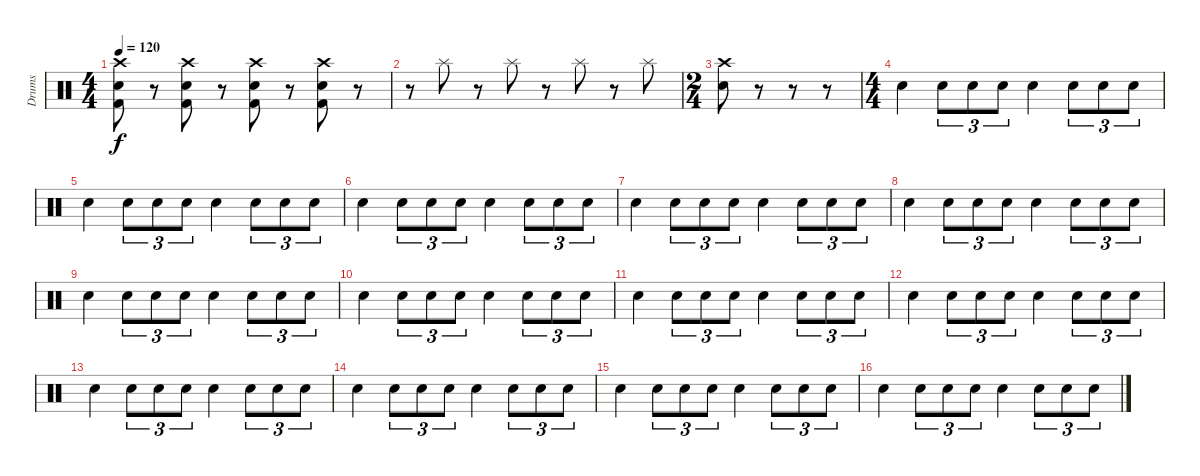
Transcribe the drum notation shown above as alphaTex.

\track ("Drums" "Drums") {instrument percussion}
\staff {score}
\articulation defaults
\ts (4 4)
\tempo 120
\clef neutral
\ks c
("Electric Snare (hit)" "Kick (hit) 2" "Crash high (hit)").8{dy f} r.8 ("Electric Snare (hit)" "Kick (hit) 2" "Crash high (hit)").8 r.8 ("Electric Snare (hit)" "Kick (hit) 2" "Crash high (hit)").8 r.8 ("Electric Snare (hit)" "Kick (hit) 2" "Crash high (hit)").8 r.8 |
r.8 "Splash (hit)".8 r.8 "Splash (hit)".8 r.8 "Splash (hit)".8 r.8 "Splash (hit)".8 |
\ts (2 4)
("Crash high (hit)" "Electric Snare (hit)").8 r.8 r.8 r.8 |
\ts (4 4)
"Electric Snare (hit)".4 "Electric Snare (hit)".8{tu (3 2)} "Electric Snare (hit)".8{tu (3 2)} "Electric Snare (hit)".8{tu (3 2)} "Electric Snare (hit)".4 "Electric Snare (hit)".8{tu (3 2)} "Electric Snare (hit)".8{tu (3 2)} "Electric Snare (hit)".8{tu (3 2)} |
"Electric Snare (hit)".4 "Electric Snare (hit)".8{tu (3 2)} "Electric Snare (hit)".8{tu (3 2)} "Electric Snare (hit)".8{tu (3 2)} "Electric Snare (hit)".4 "Electric Snare (hit)".8{tu (3 2)} "Electric Snare (hit)".8{tu (3 2)} "Electric Snare (hit)".8{tu (3 2)} |
"Electric Snare (hit)".4 "Electric Snare (hit)".8{tu (3 2)} "Electric Snare (hit)".8{tu (3 2)} "Electric Snare (hit)".8{tu (3 2)} "Electric Snare (hit)".4 "Electric Snare (hit)".8{tu (3 2)} "Electric Snare (hit)".8{tu (3 2)} "Electric Snare (hit)".8{tu (3 2)} |
"Electric Snare (hit)".4 "Electric Snare (hit)".8{tu (3 2)} "Electric Snare (hit)".8{tu (3 2)} "Electric Snare (hit)".8{tu (3 2)} "Electric Snare (hit)".4 "Electric Snare (hit)".8{tu (3 2)} "Electric Snare (hit)".8{tu (3 2)} "Electric Snare (hit)".8{tu (3 2)} |
"Electric Snare (hit)".4 "Electric Snare (hit)".8{tu (3 2)} "Electric Snare (hit)".8{tu (3 2)} "Electric Snare (hit)".8{tu (3 2)} "Electric Snare (hit)".4 "Electric Snare (hit)".8{tu (3 2)} "Electric Snare (hit)".8{tu (3 2)} "Electric Snare (hit)".8{tu (3 2)} |
"Electric Snare (hit)".4 "Electric Snare (hit)".8{tu (3 2)} "Electric Snare (hit)".8{tu (3 2)} "Electric Snare (hit)".8{tu (3 2)} "Electric Snare (hit)".4 "Electric Snare (hit)".8{tu (3 2)} "Electric Snare (hit)".8{tu (3 2)} "Electric Snare (hit)".8{tu (3 2)} |
"Electric Snare (hit)".4 "Electric Snare (hit)".8{tu (3 2)} "Electric Snare (hit)".8{tu (3 2)} "Electric Snare (hit)".8{tu (3 2)} "Electric Snare (hit)".4 "Electric Snare (hit)".8{tu (3 2)} "Electric Snare (hit)".8{tu (3 2)} "Electric Snare (hit)".8{tu (3 2)} |
"Electric Snare (hit)".4 "Electric Snare (hit)".8{tu (3 2)} "Electric Snare (hit)".8{tu (3 2)} "Electric Snare (hit)".8{tu (3 2)} "Electric Snare (hit)".4 "Electric Snare (hit)".8{tu (3 2)} "Electric Snare (hit)".8{tu (3 2)} "Electric Snare (hit)".8{tu (3 2)} |
"Electric Snare (hit)".4 "Electric Snare (hit)".8{tu (3 2)} "Electric Snare (hit)".8{tu (3 2)} "Electric Snare (hit)".8{tu (3 2)} "Electric Snare (hit)".4 "Electric Snare (hit)".8{tu (3 2)} "Electric Snare (hit)".8{tu (3 2)} "Electric Snare (hit)".8{tu (3 2)} |
"Electric Snare (hit)".4 "Electric Snare (hit)".8{tu (3 2)} "Electric Snare (hit)".8{tu (3 2)} "Electric Snare (hit)".8{tu (3 2)} "Electric Snare (hit)".4 "Electric Snare (hit)".8{tu (3 2)} "Electric Snare (hit)".8{tu (3 2)} "Electric Snare (hit)".8{tu (3 2)} |
"Electric Snare (hit)".4 "Electric Snare (hit)".8{tu (3 2)} "Electric Snare (hit)".8{tu (3 2)} "Electric Snare (hit)".8{tu (3 2)} "Electric Snare (hit)".4 "Electric Snare (hit)".8{tu (3 2)} "Electric Snare (hit)".8{tu (3 2)} "Electric Snare (hit)".8{tu (3 2)} |
"Electric Snare (hit)".4 "Electric Snare (hit)".8{tu (3 2)} "Electric Snare (hit)".8{tu (3 2)} "Electric Snare (hit)".8{tu (3 2)} "Electric Snare (hit)".4 "Electric Snare (hit)".8{tu (3 2)} "Electric Snare (hit)".8{tu (3 2)} "Electric Snare (hit)".8{tu (3 2)} |
"Electric Snare (hit)".4 "Electric Snare (hit)".8{tu (3 2)} "Electric Snare (hit)".8{tu (3 2)} "Electric Snare (hit)".8{tu (3 2)} "Electric Snare (hit)".4 "Electric Snare (hit)".8{tu (3 2)} "Electric Snare (hit)".8{tu (3 2)} "Electric Snare (hit)".8{tu (3 2)}
